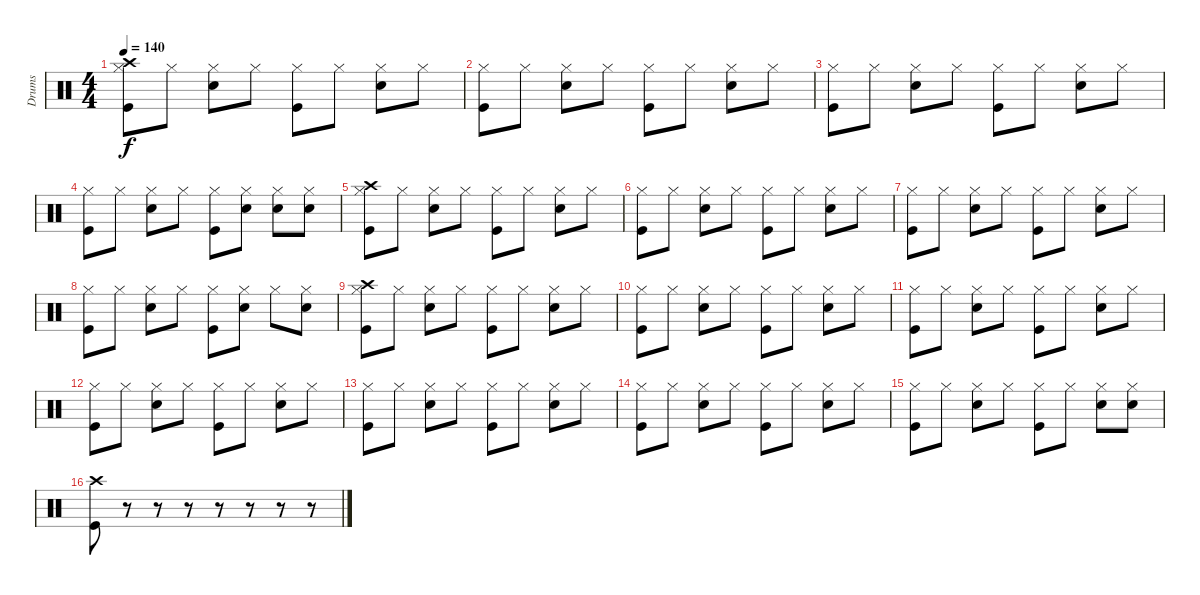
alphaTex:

\track ("Drums" "Drums") {instrument percussion}
\staff {score}
\articulation defaults
\ts (4 4)
\tempo 140
\clef neutral
\ks c
("Kick (hit)" "Hi-Hat (closed)" "Crash high (hit)").8{dy f} "Hi-Hat (closed)".8 ("Snare (hit) 2" "Hi-Hat (closed)").8 "Hi-Hat (closed)".8 ("Kick (hit)" "Hi-Hat (closed)").8 "Hi-Hat (closed)".8 ("Snare (hit) 2" "Hi-Hat (closed)").8 "Hi-Hat (closed)".8 |
("Kick (hit)" "Hi-Hat (closed)").8 "Hi-Hat (closed)".8 ("Snare (hit) 2" "Hi-Hat (closed)").8 "Hi-Hat (closed)".8 ("Kick (hit)" "Hi-Hat (closed)").8 "Hi-Hat (closed)".8 ("Snare (hit) 2" "Hi-Hat (closed)").8 "Hi-Hat (closed)".8 |
("Kick (hit)" "Hi-Hat (closed)").8 "Hi-Hat (closed)".8 ("Snare (hit) 2" "Hi-Hat (closed)").8 "Hi-Hat (closed)".8 ("Kick (hit)" "Hi-Hat (closed)").8 "Hi-Hat (closed)".8 ("Snare (hit) 2" "Hi-Hat (closed)").8 "Hi-Hat (closed)".8 |
("Kick (hit)" "Hi-Hat (closed)").8 "Hi-Hat (closed)".8 ("Snare (hit) 2" "Hi-Hat (closed)").8 "Hi-Hat (closed)".8 ("Kick (hit)" "Hi-Hat (closed)").8 ("Snare (hit) 2" "Hi-Hat (closed)").8 ("Snare (hit) 2" "Hi-Hat (closed)").8 ("Snare (hit) 2" "Hi-Hat (closed)").8 |
("Kick (hit)" "Hi-Hat (closed)" "Crash high (hit)").8 "Hi-Hat (closed)".8 ("Snare (hit) 2" "Hi-Hat (closed)").8 "Hi-Hat (closed)".8 ("Kick (hit)" "Hi-Hat (closed)").8 "Hi-Hat (closed)".8 ("Snare (hit) 2" "Hi-Hat (closed)").8 "Hi-Hat (closed)".8 |
("Kick (hit)" "Hi-Hat (closed)").8 "Hi-Hat (closed)".8 ("Snare (hit) 2" "Hi-Hat (closed)").8 "Hi-Hat (closed)".8 ("Kick (hit)" "Hi-Hat (closed)").8 "Hi-Hat (closed)".8 ("Snare (hit) 2" "Hi-Hat (closed)").8 "Hi-Hat (closed)".8 |
("Kick (hit)" "Hi-Hat (closed)").8 "Hi-Hat (closed)".8 ("Snare (hit) 2" "Hi-Hat (closed)").8 "Hi-Hat (closed)".8 ("Kick (hit)" "Hi-Hat (closed)").8 "Hi-Hat (closed)".8 ("Snare (hit) 2" "Hi-Hat (closed)").8 "Hi-Hat (closed)".8 |
("Kick (hit)" "Hi-Hat (closed)").8 "Hi-Hat (closed)".8 ("Snare (hit) 2" "Hi-Hat (closed)").8 "Hi-Hat (closed)".8 ("Kick (hit)" "Hi-Hat (closed)").8 ("Snare (hit) 2" "Hi-Hat (closed)").8 "Hi-Hat (closed)".8 ("Snare (hit) 2" "Hi-Hat (closed)").8 |
("Kick (hit)" "Hi-Hat (closed)" "Crash high (hit)").8 "Hi-Hat (closed)".8 ("Snare (hit) 2" "Hi-Hat (closed)").8 "Hi-Hat (closed)".8 ("Kick (hit)" "Hi-Hat (closed)").8 "Hi-Hat (closed)".8 ("Snare (hit) 2" "Hi-Hat (closed)").8 "Hi-Hat (closed)".8 |
("Kick (hit)" "Hi-Hat (closed)").8 "Hi-Hat (closed)".8 ("Snare (hit) 2" "Hi-Hat (closed)").8 "Hi-Hat (closed)".8 ("Kick (hit)" "Hi-Hat (closed)").8 "Hi-Hat (closed)".8 ("Snare (hit) 2" "Hi-Hat (closed)").8 "Hi-Hat (closed)".8 |
("Kick (hit)" "Hi-Hat (closed)").8 "Hi-Hat (closed)".8 ("Snare (hit) 2" "Hi-Hat (closed)").8 "Hi-Hat (closed)".8 ("Kick (hit)" "Hi-Hat (closed)").8 "Hi-Hat (closed)".8 ("Snare (hit) 2" "Hi-Hat (closed)").8 "Hi-Hat (closed)".8 |
("Kick (hit)" "Hi-Hat (closed)").8 "Hi-Hat (closed)".8 ("Snare (hit) 2" "Hi-Hat (closed)").8 "Hi-Hat (closed)".8 ("Kick (hit)" "Hi-Hat (closed)").8 "Hi-Hat (closed)".8 ("Snare (hit) 2" "Hi-Hat (closed)").8 "Hi-Hat (closed)".8 |
("Kick (hit)" "Hi-Hat (closed)").8 "Hi-Hat (closed)".8 ("Snare (hit) 2" "Hi-Hat (closed)").8 "Hi-Hat (closed)".8 ("Kick (hit)" "Hi-Hat (closed)").8 "Hi-Hat (closed)".8 ("Snare (hit) 2" "Hi-Hat (closed)").8 "Hi-Hat (closed)".8 |
("Kick (hit)" "Hi-Hat (closed)").8 "Hi-Hat (closed)".8 ("Snare (hit) 2" "Hi-Hat (closed)").8 "Hi-Hat (closed)".8 ("Kick (hit)" "Hi-Hat (closed)").8 "Hi-Hat (closed)".8 ("Snare (hit) 2" "Hi-Hat (closed)").8 "Hi-Hat (closed)".8 |
("Kick (hit)" "Hi-Hat (closed)").8 "Hi-Hat (closed)".8 ("Snare (hit) 2" "Hi-Hat (closed)").8 "Hi-Hat (closed)".8 ("Kick (hit)" "Hi-Hat (closed)").8 "Hi-Hat (closed)".8 ("Snare (hit) 2" "Hi-Hat (closed)").8 ("Snare (hit) 2" "Hi-Hat (closed)").8 |
("Kick (hit)" "Crash high (hit)").8 r.8 r.8 r.8 r.8 r.8 r.8 r.8
